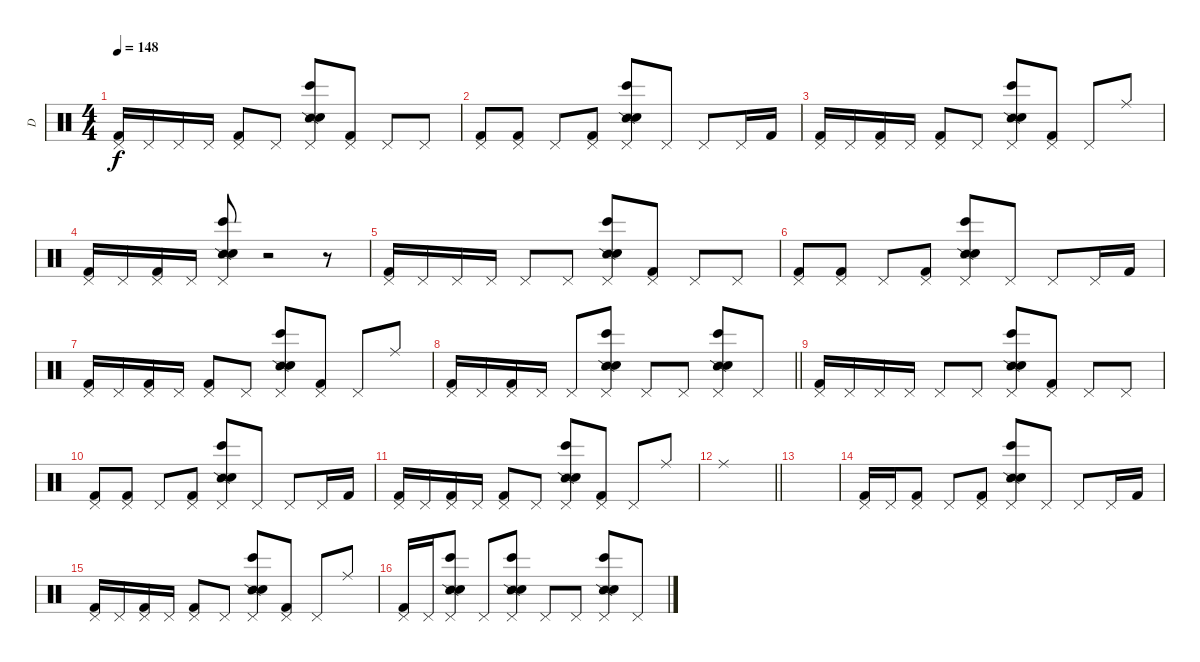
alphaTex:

\track ("D" "D") {instrument percussion}
\staff {score}
\articulation defaults
\ts (4 4)
\tempo 148
\clef neutral
\ks c
("Kick (hit) 2" "Pedal Hi-Hat (hit)").16{dy f} "Pedal Hi-Hat (hit)".16 "Pedal Hi-Hat (hit)".16 "Pedal Hi-Hat (hit)".16 ("Kick (hit) 2" "Pedal Hi-Hat (hit)").8 "Pedal Hi-Hat (hit)".8 ("Bongo High (hit)" "Snare (side stick) 2" "Electric Snare (hit)" "Pedal Hi-Hat (hit)").8 ("Kick (hit) 2" "Pedal Hi-Hat (hit)").8 "Pedal Hi-Hat (hit)".8 "Pedal Hi-Hat (hit)".8 |
("Kick (hit) 2" "Pedal Hi-Hat (hit)").8 ("Kick (hit) 2" "Pedal Hi-Hat (hit)").8 "Pedal Hi-Hat (hit)".8 ("Kick (hit) 2" "Pedal Hi-Hat (hit)").8 ("Bongo High (hit)" "Snare (side stick) 2" "Electric Snare (hit)" "Pedal Hi-Hat (hit)").8 "Pedal Hi-Hat (hit)".8 "Pedal Hi-Hat (hit)".8 "Pedal Hi-Hat (hit)".16 "Kick (hit) 2".16 |
("Kick (hit) 2" "Pedal Hi-Hat (hit)").16 "Pedal Hi-Hat (hit)".16 ("Kick (hit) 2" "Pedal Hi-Hat (hit)").16 "Pedal Hi-Hat (hit)".16 ("Kick (hit) 2" "Pedal Hi-Hat (hit)").8 "Pedal Hi-Hat (hit)".8 ("Bongo High (hit)" "Snare (side stick) 2" "Electric Snare (hit)" "Pedal Hi-Hat (hit)").8 ("Kick (hit) 2" "Pedal Hi-Hat (hit)").8 "Pedal Hi-Hat (hit)".8 "Ride (middle)".8 |
("Kick (hit) 2" "Pedal Hi-Hat (hit)").16 "Pedal Hi-Hat (hit)".16 ("Kick (hit) 2" "Pedal Hi-Hat (hit)").16 "Pedal Hi-Hat (hit)".16 ("Bongo High (hit)" "Snare (side stick) 2" "Electric Snare (hit)" "Pedal Hi-Hat (hit)").8 r.2 r.8 |
("Kick (hit) 2" "Pedal Hi-Hat (hit)").16 "Pedal Hi-Hat (hit)".16 "Pedal Hi-Hat (hit)".16 "Pedal Hi-Hat (hit)".16 "Pedal Hi-Hat (hit)".8 "Pedal Hi-Hat (hit)".8 ("Bongo High (hit)" "Snare (side stick) 2" "Electric Snare (hit)" "Pedal Hi-Hat (hit)").8 ("Kick (hit) 2" "Pedal Hi-Hat (hit)").8 "Pedal Hi-Hat (hit)".8 "Pedal Hi-Hat (hit)".8 |
("Kick (hit) 2" "Pedal Hi-Hat (hit)").8 ("Kick (hit) 2" "Pedal Hi-Hat (hit)").8 "Pedal Hi-Hat (hit)".8 ("Kick (hit) 2" "Pedal Hi-Hat (hit)").8 ("Bongo High (hit)" "Snare (side stick) 2" "Electric Snare (hit)" "Pedal Hi-Hat (hit)").8 "Pedal Hi-Hat (hit)".8 "Pedal Hi-Hat (hit)".8 "Pedal Hi-Hat (hit)".16 "Kick (hit) 2".16 |
("Kick (hit) 2" "Pedal Hi-Hat (hit)").16 "Pedal Hi-Hat (hit)".16 ("Kick (hit) 2" "Pedal Hi-Hat (hit)").16 "Pedal Hi-Hat (hit)".16 ("Kick (hit) 2" "Pedal Hi-Hat (hit)").8 "Pedal Hi-Hat (hit)".8 ("Bongo High (hit)" "Snare (side stick) 2" "Electric Snare (hit)" "Pedal Hi-Hat (hit)").8 ("Kick (hit) 2" "Pedal Hi-Hat (hit)").8 "Pedal Hi-Hat (hit)".8 "Ride (middle)".8 |
\barLineRight lightlight
("Kick (hit) 2" "Pedal Hi-Hat (hit)").16 "Pedal Hi-Hat (hit)".16 ("Kick (hit) 2" "Pedal Hi-Hat (hit)").16 "Pedal Hi-Hat (hit)".16 "Pedal Hi-Hat (hit)".8 ("Bongo High (hit)" "Snare (side stick) 2" "Electric Snare (hit)" "Pedal Hi-Hat (hit)").8 "Pedal Hi-Hat (hit)".8 "Pedal Hi-Hat (hit)".8 ("Bongo High (hit)" "Snare (side stick) 2" "Electric Snare (hit)" "Pedal Hi-Hat (hit)").8 "Pedal Hi-Hat (hit)".8 |
("Kick (hit) 2" "Pedal Hi-Hat (hit)").16 "Pedal Hi-Hat (hit)".16 "Pedal Hi-Hat (hit)".16 "Pedal Hi-Hat (hit)".16 "Pedal Hi-Hat (hit)".8 "Pedal Hi-Hat (hit)".8 ("Bongo High (hit)" "Snare (side stick) 2" "Electric Snare (hit)" "Pedal Hi-Hat (hit)").8 ("Kick (hit) 2" "Pedal Hi-Hat (hit)").8 "Pedal Hi-Hat (hit)".8 "Pedal Hi-Hat (hit)".8 |
("Kick (hit) 2" "Pedal Hi-Hat (hit)").8 ("Kick (hit) 2" "Pedal Hi-Hat (hit)").8 "Pedal Hi-Hat (hit)".8 ("Kick (hit) 2" "Pedal Hi-Hat (hit)").8 ("Bongo High (hit)" "Snare (side stick) 2" "Electric Snare (hit)" "Pedal Hi-Hat (hit)").8 "Pedal Hi-Hat (hit)".8 "Pedal Hi-Hat (hit)".8 "Pedal Hi-Hat (hit)".16 "Kick (hit) 2".16 |
("Kick (hit) 2" "Pedal Hi-Hat (hit)").16 "Pedal Hi-Hat (hit)".16 ("Kick (hit) 2" "Pedal Hi-Hat (hit)").16 "Pedal Hi-Hat (hit)".16 ("Kick (hit) 2" "Pedal Hi-Hat (hit)").8 "Pedal Hi-Hat (hit)".8 ("Bongo High (hit)" "Snare (side stick) 2" "Electric Snare (hit)" "Pedal Hi-Hat (hit)").8 ("Kick (hit) 2" "Pedal Hi-Hat (hit)").8 "Pedal Hi-Hat (hit)".8 "Ride (middle)".8 |
\barLineRight lightlight "Ride (middle)".1
|
|
("Kick (hit) 2" "Pedal Hi-Hat (hit)").16 "Pedal Hi-Hat (hit)".16 ("Kick (hit) 2" "Pedal Hi-Hat (hit)").8 "Pedal Hi-Hat (hit)".8 ("Kick (hit) 2" "Pedal Hi-Hat (hit)").8 ("Bongo High (hit)" "Snare (side stick) 2" "Electric Snare (hit)" "Pedal Hi-Hat (hit)").8 "Pedal Hi-Hat (hit)".8 "Pedal Hi-Hat (hit)".8 "Pedal Hi-Hat (hit)".16 "Kick (hit) 2".16 |
("Kick (hit) 2" "Pedal Hi-Hat (hit)").16 "Pedal Hi-Hat (hit)".16 ("Kick (hit) 2" "Pedal Hi-Hat (hit)").16 "Pedal Hi-Hat (hit)".16 ("Kick (hit) 2" "Pedal Hi-Hat (hit)").8 "Pedal Hi-Hat (hit)".8 ("Bongo High (hit)" "Snare (side stick) 2" "Electric Snare (hit)" "Pedal Hi-Hat (hit)").8 ("Kick (hit) 2" "Pedal Hi-Hat (hit)").8 "Pedal Hi-Hat (hit)".8 "Ride (middle)".8 |
("Kick (hit) 2" "Pedal Hi-Hat (hit)").16 "Pedal Hi-Hat (hit)".16 ("Bongo High (hit)" "Snare (side stick) 2" "Electric Snare (hit)" "Pedal Hi-Hat (hit)").8 "Pedal Hi-Hat (hit)".8 ("Bongo High (hit)" "Snare (side stick) 2" "Electric Snare (hit)" "Pedal Hi-Hat (hit)").8 "Pedal Hi-Hat (hit)".8 "Pedal Hi-Hat (hit)".8 ("Bongo High (hit)" "Snare (side stick) 2" "Electric Snare (hit)" "Pedal Hi-Hat (hit)").8 "Pedal Hi-Hat (hit)".8
